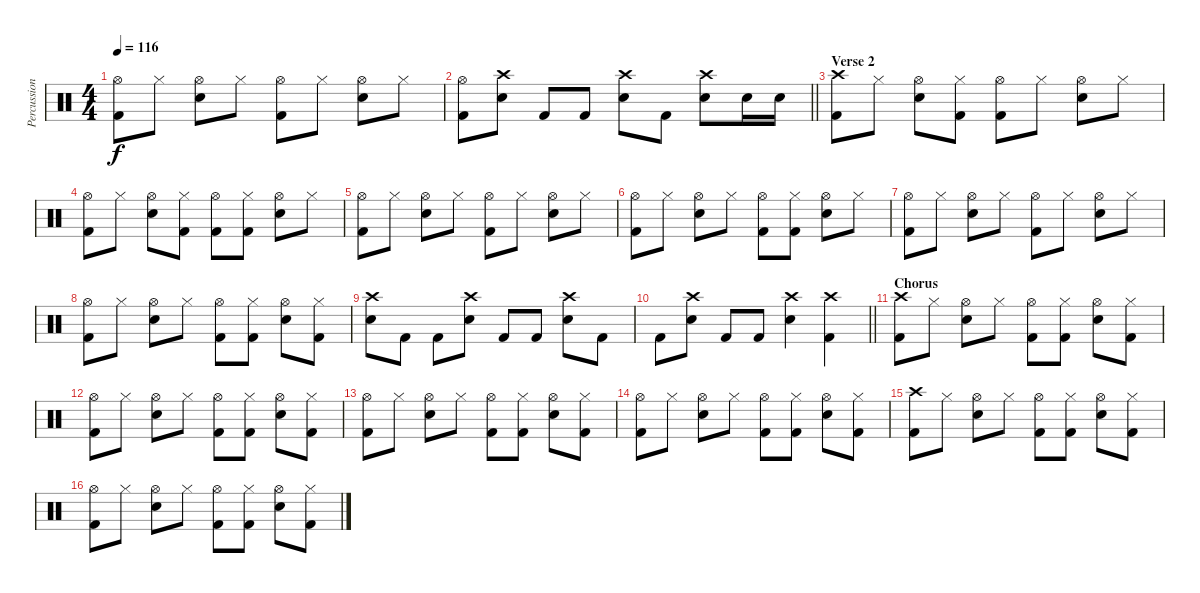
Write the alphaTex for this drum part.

\track ("Percussion" "Percussion") {instrument percussion}
\staff {score}
\articulation defaults
\ts (4 4)
\tempo 116
\clef neutral
\ks c
("Hi-Hat (open)" "Kick (hit) 2").8{dy f} "Hi-Hat (closed)".8 ("Hi-Hat (open)" "Snare (hit) 2").8 "Hi-Hat (closed)".8 ("Hi-Hat (open)" "Kick (hit) 2").8 "Hi-Hat (closed)".8 ("Hi-Hat (open)" "Snare (hit) 2").8 "Hi-Hat (closed)".8 |
\barLineRight lightlight
("Hi-Hat (open)" "Kick (hit) 2").8 ("Crash high (hit)" "Snare (hit) 2").8 "Kick (hit) 2".8 "Kick (hit) 2".8 ("Crash high (hit)" "Snare (hit) 2").8 "Kick (hit) 2".8 ("Crash high (hit)" "Snare (hit) 2").8 "Snare (hit) 2".16 "Snare (hit) 2".16 |
\section ("" "Verse 2")
("Crash high (hit)" "Kick (hit) 2").8 "Hi-Hat (closed)".8 ("Hi-Hat (open)" "Snare (hit) 2").8 ("Hi-Hat (closed)" "Kick (hit) 2").8 ("Hi-Hat (open)" "Kick (hit) 2").8 "Hi-Hat (closed)".8 ("Hi-Hat (open)" "Snare (hit) 2").8 "Hi-Hat (closed)".8 |
("Hi-Hat (open)" "Kick (hit) 2").8 "Hi-Hat (closed)".8 ("Hi-Hat (open)" "Snare (hit) 2").8 ("Hi-Hat (closed)" "Kick (hit) 2").8 ("Hi-Hat (open)" "Kick (hit) 2").8 ("Hi-Hat (closed)" "Kick (hit) 2").8 ("Hi-Hat (open)" "Snare (hit) 2").8 "Hi-Hat (closed)".8 |
("Hi-Hat (open)" "Kick (hit) 2").8 "Hi-Hat (closed)".8 ("Hi-Hat (open)" "Snare (hit) 2").8 "Hi-Hat (closed)".8 ("Hi-Hat (open)" "Kick (hit) 2").8 "Hi-Hat (closed)".8 ("Hi-Hat (open)" "Snare (hit) 2").8 "Hi-Hat (closed)".8 |
("Hi-Hat (open)" "Kick (hit) 2").8 "Hi-Hat (closed)".8 ("Hi-Hat (open)" "Snare (hit) 2").8 "Hi-Hat (closed)".8 ("Hi-Hat (open)" "Kick (hit) 2").8 ("Hi-Hat (closed)" "Kick (hit) 2").8 ("Hi-Hat (open)" "Snare (hit) 2").8 "Hi-Hat (closed)".8 |
("Hi-Hat (open)" "Kick (hit) 2").8 "Hi-Hat (closed)".8 ("Hi-Hat (open)" "Snare (hit) 2").8 "Hi-Hat (closed)".8 ("Hi-Hat (open)" "Kick (hit) 2").8 "Hi-Hat (closed)".8 ("Hi-Hat (open)" "Snare (hit) 2").8 "Hi-Hat (closed)".8 |
("Hi-Hat (open)" "Kick (hit) 2").8 "Hi-Hat (closed)".8 ("Hi-Hat (open)" "Snare (hit) 2").8 "Hi-Hat (closed)".8 ("Hi-Hat (open)" "Kick (hit) 2").8 ("Hi-Hat (closed)" "Kick (hit) 2").8 ("Hi-Hat (open)" "Snare (hit) 2").8 ("Hi-Hat (closed)" "Kick (hit) 2").8 |
("Crash high (hit)" "Snare (hit) 2").8 "Kick (hit) 2".8 "Kick (hit) 2".8 ("Crash high (hit)" "Snare (hit) 2").8 "Kick (hit) 2".8 "Kick (hit) 2".8 ("Crash high (hit)" "Snare (hit) 2").8 "Kick (hit) 2".8 |
\barLineRight lightlight "Kick (hit) 2".8
("Crash high (hit)" "Snare (hit) 2").8 "Kick (hit) 2".8 "Kick (hit) 2".8 ("Crash high (hit)" "Snare (hit) 2").4 ("Crash high (hit)" "Kick (hit) 2").4 |
\section ("" "Chorus")
("Crash high (hit)" "Kick (hit) 2").8 "Hi-Hat (closed)".8 ("Hi-Hat (open)" "Snare (hit) 2").8 "Hi-Hat (closed)".8 ("Hi-Hat (open)" "Kick (hit) 2").8 ("Hi-Hat (closed)" "Kick (hit) 2").8 ("Hi-Hat (open)" "Snare (hit) 2").8 ("Hi-Hat (closed)" "Kick (hit) 2").8 |
("Hi-Hat (open)" "Kick (hit) 2").8 "Hi-Hat (closed)".8 ("Hi-Hat (open)" "Snare (hit) 2").8 "Hi-Hat (closed)".8 ("Hi-Hat (open)" "Kick (hit) 2").8 ("Hi-Hat (closed)" "Kick (hit) 2").8 ("Hi-Hat (open)" "Snare (hit) 2").8 ("Hi-Hat (closed)" "Kick (hit) 2").8 |
("Hi-Hat (open)" "Kick (hit) 2").8 "Hi-Hat (closed)".8 ("Hi-Hat (open)" "Snare (hit) 2").8 "Hi-Hat (closed)".8 ("Hi-Hat (open)" "Kick (hit) 2").8 ("Hi-Hat (closed)" "Kick (hit) 2").8 ("Hi-Hat (open)" "Snare (hit) 2").8 ("Hi-Hat (closed)" "Kick (hit) 2").8 |
("Hi-Hat (open)" "Kick (hit) 2").8 "Hi-Hat (closed)".8 ("Hi-Hat (open)" "Snare (hit) 2").8 "Hi-Hat (closed)".8 ("Hi-Hat (open)" "Kick (hit) 2").8 ("Hi-Hat (closed)" "Kick (hit) 2").8 ("Hi-Hat (open)" "Snare (hit) 2").8 ("Hi-Hat (closed)" "Kick (hit) 2").8 |
("Crash high (hit)" "Kick (hit) 2").8 "Hi-Hat (closed)".8 ("Hi-Hat (open)" "Snare (hit) 2").8 "Hi-Hat (closed)".8 ("Hi-Hat (open)" "Kick (hit) 2").8 ("Hi-Hat (closed)" "Kick (hit) 2").8 ("Hi-Hat (open)" "Snare (hit) 2").8 ("Hi-Hat (closed)" "Kick (hit) 2").8 |
("Hi-Hat (open)" "Kick (hit) 2").8 "Hi-Hat (closed)".8 ("Hi-Hat (open)" "Snare (hit) 2").8 "Hi-Hat (closed)".8 ("Hi-Hat (open)" "Kick (hit) 2").8 ("Hi-Hat (closed)" "Kick (hit) 2").8 ("Hi-Hat (open)" "Snare (hit) 2").8 ("Hi-Hat (closed)" "Kick (hit) 2").8
